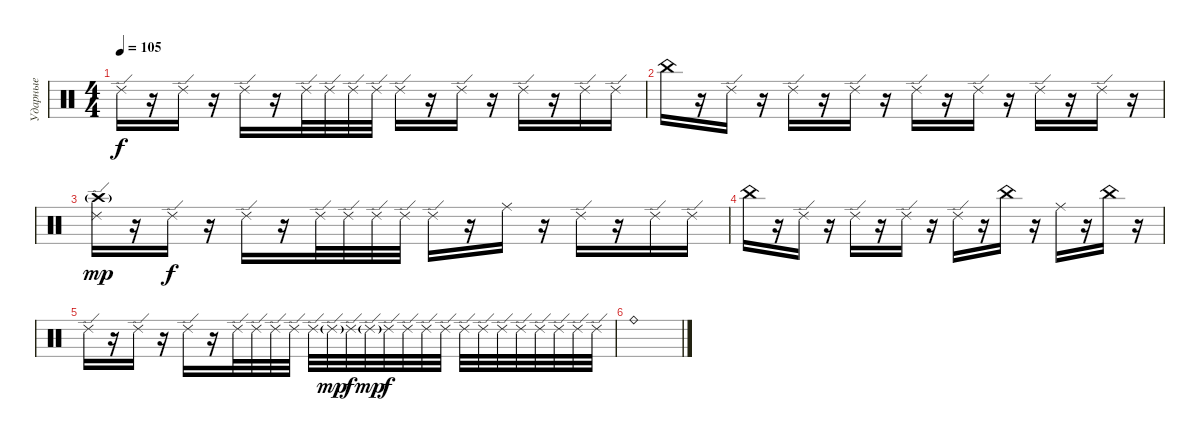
\track ("Ударные" "Ударные") {instrument percussion}
\staff {score}
\articulation defaults
\ts (4 4)
\tempo 105
\clef neutral
\ks c "Ride (edge) 2".16{dy f}
r.16 "Ride (edge) 2".16 r.16 "Ride (edge) 2".16 r.16 "Ride (edge) 2".32 "Ride (edge) 2".32 "Ride (edge) 2".32 "Ride (edge) 2".32 "Ride (edge) 2".16 r.16 "Ride (edge) 2".16 r.16 "Ride (edge) 2".16 r.16 "Ride (edge) 2".16 "Ride (edge) 2".16 |
"China (hit)".16 r.16 "Ride (edge) 2".16 r.16 "Ride (edge) 2".16 r.16 "Ride (edge) 2".16 r.16 "Ride (edge) 2".16 r.16 "Ride (edge) 2".16 r.16 "Ride (edge) 2".16 r.16 "Ride (edge) 2".16 r.16 |
("Ride (edge) 2" "Crash high (hit)"{g}).16{dy mp} r.16 "Ride (edge) 2".16{dy f} r.16 "Ride (edge) 2".16 r.16 "Ride (edge) 2".32 "Ride (edge) 2".32 "Ride (edge) 2".32 "Ride (edge) 2".32 "Ride (edge) 2".16 r.16 "Ride (middle)".16 r.16 "Ride (edge) 2".16 r.16 "Ride (edge) 2".16 "Ride (edge) 2".16 |
"China (hit)".16 r.16 "Ride (edge) 2".16 r.16 "Ride (edge) 2".16 r.16 "Ride (edge) 2".16 r.16 "Ride (edge) 2".16 r.16 "China (hit)".16 r.16 "Ride (middle)".16 r.16 "China (hit)".16 r.16 |
"Ride (edge) 2".16 r.16 "Ride (edge) 2".16 r.16 "Ride (edge) 2".16 r.16 "Ride (edge) 2".32 "Ride (edge) 2".32 "Ride (edge) 2".32 "Ride (edge) 2".32 "Ride (edge) 2".32 "Ride (edge) 2"{g}.32{dy mp} "Ride (edge) 2".32{dy f} "Ride (edge) 2"{g}.32{dy mp} "Ride (edge) 2".32{dy f} "Ride (edge) 2".32 "Ride (edge) 2".32 "Ride (edge) 2".32 "Ride (edge) 2".32 "Ride (edge) 2".32 "Ride (edge) 2".32 "Ride (edge) 2".32 "Ride (edge) 2".32 "Ride (edge) 2".32 "Ride (edge) 2".32 "Ride (edge) 2".32 |
"Ride (bell)".1
